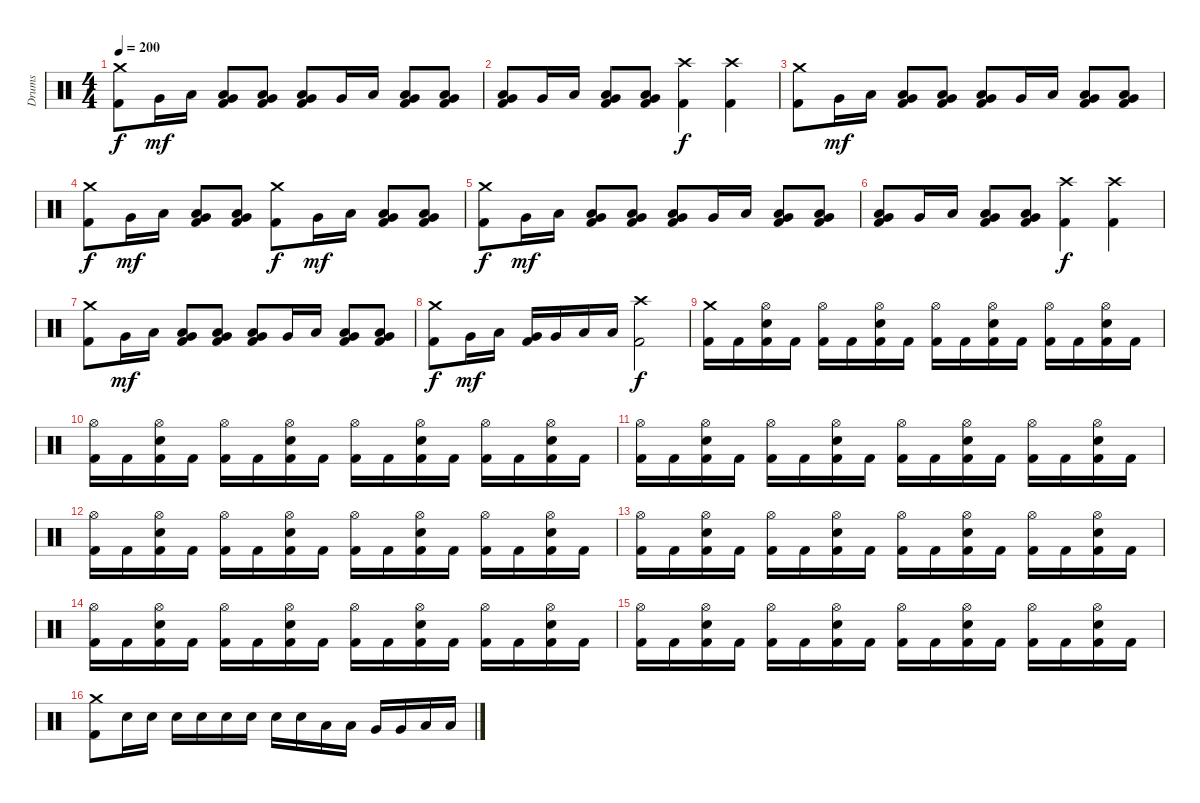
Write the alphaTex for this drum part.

\track ("Drums" "Drums") {instrument percussion}
\staff {score}
\articulation defaults
\ts (4 4)
\tempo 200
\clef neutral
\ks c
("Crash medium (hit)" "Kick (hit) 2").8{dy f} "Very Low Tom (hit)".16{dy mf} "Low Floor Tom (hit)".16 ("Very Low Tom (hit)" "Low Floor Tom (hit)" "Kick (hit) 2").8 ("Very Low Tom (hit)" "Low Floor Tom (hit)" "Kick (hit) 2").8 ("Very Low Tom (hit)" "Low Floor Tom (hit)" "Kick (hit) 2").8 "Very Low Tom (hit)".16 "Low Floor Tom (hit)".16 ("Very Low Tom (hit)" "Low Floor Tom (hit)" "Kick (hit) 2").8 ("Very Low Tom (hit)" "Low Floor Tom (hit)" "Kick (hit) 2").8 |
("Very Low Tom (hit)" "Low Floor Tom (hit)" "Kick (hit) 2").8 "Very Low Tom (hit)".16 "Low Floor Tom (hit)".16 ("Very Low Tom (hit)" "Low Floor Tom (hit)" "Kick (hit) 2").8 ("Very Low Tom (hit)" "Low Floor Tom (hit)" "Kick (hit) 2").8 ("Crash high (hit)" "Kick (hit) 2").4{dy f} ("Crash high (hit)" "Kick (hit) 2").4 |
("Crash medium (hit)" "Kick (hit) 2").8 "Very Low Tom (hit)".16{dy mf} "Low Floor Tom (hit)".16 ("Very Low Tom (hit)" "Low Floor Tom (hit)" "Kick (hit) 2").8 ("Very Low Tom (hit)" "Low Floor Tom (hit)" "Kick (hit) 2").8 ("Very Low Tom (hit)" "Low Floor Tom (hit)" "Kick (hit) 2").8 "Very Low Tom (hit)".16 "Low Floor Tom (hit)".16 ("Very Low Tom (hit)" "Low Floor Tom (hit)" "Kick (hit) 2").8 ("Very Low Tom (hit)" "Low Floor Tom (hit)" "Kick (hit) 2").8 |
("Crash medium (hit)" "Kick (hit) 2").8{dy f} "Very Low Tom (hit)".16{dy mf} "Low Floor Tom (hit)".16 ("Very Low Tom (hit)" "Low Floor Tom (hit)" "Kick (hit) 2").8 ("Very Low Tom (hit)" "Low Floor Tom (hit)" "Kick (hit) 2").8 ("Crash medium (hit)" "Kick (hit) 2").8{dy f} "Very Low Tom (hit)".16{dy mf} "Low Floor Tom (hit)".16 ("Very Low Tom (hit)" "Low Floor Tom (hit)" "Kick (hit) 2").8 ("Very Low Tom (hit)" "Low Floor Tom (hit)" "Kick (hit) 2").8 |
("Crash medium (hit)" "Kick (hit) 2").8{dy f} "Very Low Tom (hit)".16{dy mf} "Low Floor Tom (hit)".16 ("Very Low Tom (hit)" "Low Floor Tom (hit)" "Kick (hit) 2").8 ("Very Low Tom (hit)" "Low Floor Tom (hit)" "Kick (hit) 2").8 ("Very Low Tom (hit)" "Low Floor Tom (hit)" "Kick (hit) 2").8 "Very Low Tom (hit)".16 "Low Floor Tom (hit)".16 ("Very Low Tom (hit)" "Low Floor Tom (hit)" "Kick (hit) 2").8 ("Very Low Tom (hit)" "Low Floor Tom (hit)" "Kick (hit) 2").8 |
("Very Low Tom (hit)" "Low Floor Tom (hit)" "Kick (hit) 2").8 "Very Low Tom (hit)".16 "Low Floor Tom (hit)".16 ("Very Low Tom (hit)" "Low Floor Tom (hit)" "Kick (hit) 2").8 ("Very Low Tom (hit)" "Low Floor Tom (hit)" "Kick (hit) 2").8 ("Crash high (hit)" "Kick (hit) 2").4{dy f} ("Crash high (hit)" "Kick (hit) 2").4 |
("Crash medium (hit)" "Kick (hit) 2").8 "Very Low Tom (hit)".16{dy mf} "Low Floor Tom (hit)".16 ("Very Low Tom (hit)" "Low Floor Tom (hit)" "Kick (hit) 2").8 ("Very Low Tom (hit)" "Low Floor Tom (hit)" "Kick (hit) 2").8 ("Very Low Tom (hit)" "Low Floor Tom (hit)" "Kick (hit) 2").8 "Very Low Tom (hit)".16 "Low Floor Tom (hit)".16 ("Very Low Tom (hit)" "Low Floor Tom (hit)" "Kick (hit) 2").8 ("Very Low Tom (hit)" "Low Floor Tom (hit)" "Kick (hit) 2").8 |
("Crash medium (hit)" "Kick (hit) 2").8{dy f} "Very Low Tom (hit)".16{dy mf} "Low Floor Tom (hit)".16 ("Very Low Tom (hit)" "Kick (hit) 2").16 "Very Low Tom (hit)".16 "Low Floor Tom (hit)".16 "Low Floor Tom (hit)".16 ("Crash high (hit)" "Kick (hit) 2").2{dy f} |
("Crash medium (hit)" "Kick (hit) 2").16 "Kick (hit) 2".16 ("Hi-Hat (open)" "Snare (hit) 2" "Kick (hit) 2").16 "Kick (hit) 2".16 ("Hi-Hat (open)" "Kick (hit) 2").16 "Kick (hit) 2".16 ("Hi-Hat (open)" "Snare (hit) 2" "Kick (hit) 2").16 "Kick (hit) 2".16 ("Hi-Hat (open)" "Kick (hit) 2").16 "Kick (hit) 2".16 ("Hi-Hat (open)" "Snare (hit) 2" "Kick (hit) 2").16 "Kick (hit) 2".16 ("Hi-Hat (open)" "Kick (hit) 2").16 "Kick (hit) 2".16 ("Hi-Hat (open)" "Snare (hit) 2" "Kick (hit) 2").16 "Kick (hit) 2".16 |
("Hi-Hat (open)" "Kick (hit) 2").16 "Kick (hit) 2".16 ("Hi-Hat (open)" "Snare (hit) 2" "Kick (hit) 2").16 "Kick (hit) 2".16 ("Hi-Hat (open)" "Kick (hit) 2").16 "Kick (hit) 2".16 ("Hi-Hat (open)" "Snare (hit) 2" "Kick (hit) 2").16 "Kick (hit) 2".16 ("Hi-Hat (open)" "Kick (hit) 2").16 "Kick (hit) 2".16 ("Hi-Hat (open)" "Snare (hit) 2" "Kick (hit) 2").16 "Kick (hit) 2".16 ("Hi-Hat (open)" "Kick (hit) 2").16 "Kick (hit) 2".16 ("Hi-Hat (open)" "Snare (hit) 2" "Kick (hit) 2").16 "Kick (hit) 2".16 |
("Hi-Hat (open)" "Kick (hit) 2").16 "Kick (hit) 2".16 ("Hi-Hat (open)" "Snare (hit) 2" "Kick (hit) 2").16 "Kick (hit) 2".16 ("Hi-Hat (open)" "Kick (hit) 2").16 "Kick (hit) 2".16 ("Hi-Hat (open)" "Snare (hit) 2" "Kick (hit) 2").16 "Kick (hit) 2".16 ("Hi-Hat (open)" "Kick (hit) 2").16 "Kick (hit) 2".16 ("Hi-Hat (open)" "Snare (hit) 2" "Kick (hit) 2").16 "Kick (hit) 2".16 ("Hi-Hat (open)" "Kick (hit) 2").16 "Kick (hit) 2".16 ("Hi-Hat (open)" "Snare (hit) 2" "Kick (hit) 2").16 "Kick (hit) 2".16 |
("Hi-Hat (open)" "Kick (hit) 2").16 "Kick (hit) 2".16 ("Hi-Hat (open)" "Snare (hit) 2" "Kick (hit) 2").16 "Kick (hit) 2".16 ("Hi-Hat (open)" "Kick (hit) 2").16 "Kick (hit) 2".16 ("Hi-Hat (open)" "Snare (hit) 2" "Kick (hit) 2").16 "Kick (hit) 2".16 ("Hi-Hat (open)" "Kick (hit) 2").16 "Kick (hit) 2".16 ("Hi-Hat (open)" "Snare (hit) 2" "Kick (hit) 2").16 "Kick (hit) 2".16 ("Hi-Hat (open)" "Kick (hit) 2").16 "Kick (hit) 2".16 ("Hi-Hat (open)" "Snare (hit) 2" "Kick (hit) 2").16 "Kick (hit) 2".16 |
("Hi-Hat (open)" "Kick (hit) 2").16 "Kick (hit) 2".16 ("Hi-Hat (open)" "Snare (hit) 2" "Kick (hit) 2").16 "Kick (hit) 2".16 ("Hi-Hat (open)" "Kick (hit) 2").16 "Kick (hit) 2".16 ("Hi-Hat (open)" "Snare (hit) 2" "Kick (hit) 2").16 "Kick (hit) 2".16 ("Hi-Hat (open)" "Kick (hit) 2").16 "Kick (hit) 2".16 ("Hi-Hat (open)" "Snare (hit) 2" "Kick (hit) 2").16 "Kick (hit) 2".16 ("Hi-Hat (open)" "Kick (hit) 2").16 "Kick (hit) 2".16 ("Hi-Hat (open)" "Snare (hit) 2" "Kick (hit) 2").16 "Kick (hit) 2".16 |
("Hi-Hat (open)" "Kick (hit) 2").16 "Kick (hit) 2".16 ("Hi-Hat (open)" "Snare (hit) 2" "Kick (hit) 2").16 "Kick (hit) 2".16 ("Hi-Hat (open)" "Kick (hit) 2").16 "Kick (hit) 2".16 ("Hi-Hat (open)" "Snare (hit) 2" "Kick (hit) 2").16 "Kick (hit) 2".16 ("Hi-Hat (open)" "Kick (hit) 2").16 "Kick (hit) 2".16 ("Hi-Hat (open)" "Snare (hit) 2" "Kick (hit) 2").16 "Kick (hit) 2".16 ("Hi-Hat (open)" "Kick (hit) 2").16 "Kick (hit) 2".16 ("Hi-Hat (open)" "Snare (hit) 2" "Kick (hit) 2").16 "Kick (hit) 2".16 |
("Hi-Hat (open)" "Kick (hit) 2").16 "Kick (hit) 2".16 ("Hi-Hat (open)" "Snare (hit) 2" "Kick (hit) 2").16 "Kick (hit) 2".16 ("Hi-Hat (open)" "Kick (hit) 2").16 "Kick (hit) 2".16 ("Hi-Hat (open)" "Snare (hit) 2" "Kick (hit) 2").16 "Kick (hit) 2".16 ("Hi-Hat (open)" "Kick (hit) 2").16 "Kick (hit) 2".16 ("Hi-Hat (open)" "Snare (hit) 2" "Kick (hit) 2").16 "Kick (hit) 2".16 ("Hi-Hat (open)" "Kick (hit) 2").16 "Kick (hit) 2".16 ("Hi-Hat (open)" "Snare (hit) 2" "Kick (hit) 2").16 "Kick (hit) 2".16 |
("Crash medium (hit)" "Kick (hit) 2").8 "Snare (hit) 2".16 "Snare (hit) 2".16 "Snare (hit) 2".16 "Snare (hit) 2".16 "Snare (hit) 2".16 "Snare (hit) 2".16 "Snare (hit) 2".16 "Snare (hit) 2".16 "Low Tom (hit)".16 "Low Tom (hit)".16 "Very Low Tom (hit)".16 "Very Low Tom (hit)".16 "Low Floor Tom (hit)".16 "Low Floor Tom (hit)".16
